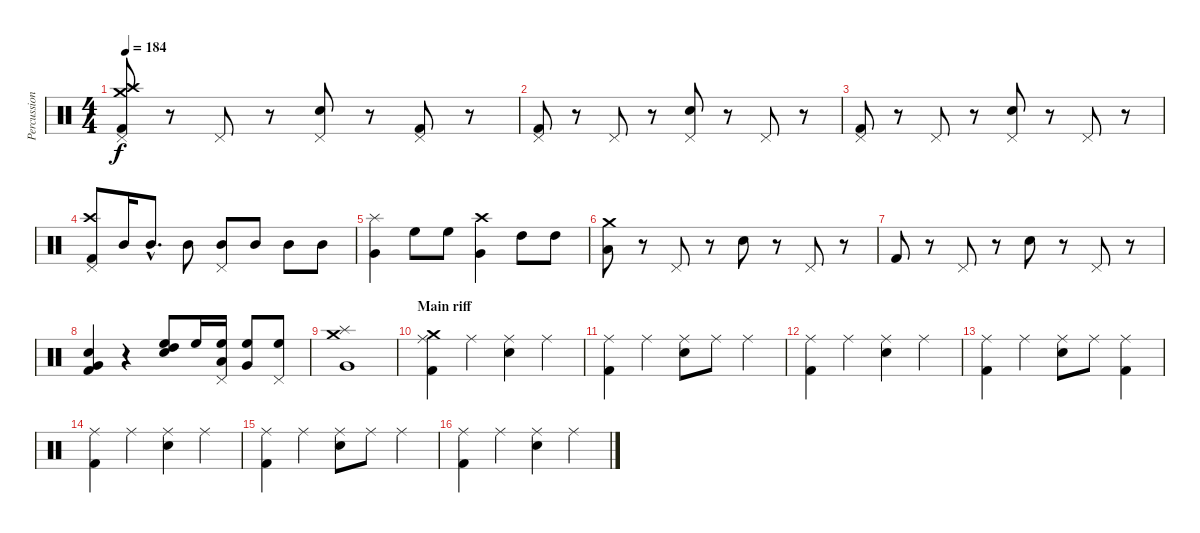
\track ("Percussion" "Percussion") {instrument percussion}
\staff {score}
\articulation defaults
\ts (4 4)
\tempo 184
\clef neutral
\ks c
("Kick (hit) 2" "Crash medium (hit)" "Crash high (hit)" "Pedal Hi-Hat (hit)").8{dy f} r.8 "Pedal Hi-Hat (hit)".8 r.8 ("Snare (hit) 2" "Pedal Hi-Hat (hit)").8 r.8 ("Kick (hit) 2" "Pedal Hi-Hat (hit)").8 r.8 |
("Kick (hit) 2" "Pedal Hi-Hat (hit)").8 r.8 "Pedal Hi-Hat (hit)".8 r.8 ("Snare (hit) 2" "Pedal Hi-Hat (hit)").8 r.8 "Pedal Hi-Hat (hit)".8 r.8 |
("Kick (hit) 2" "Pedal Hi-Hat (hit)").8 r.8 "Pedal Hi-Hat (hit)".8 r.8 ("Snare (hit) 2" "Pedal Hi-Hat (hit)").8 r.8 "Pedal Hi-Hat (hit)".8 r.8 |
("Kick (hit) 2" "Pedal Hi-Hat (hit)" "Crash high (hit)").8 "Mid Tom (hit)".16 "Mid Tom (hit)"{hac}.8{d} "Mid Tom (hit)".8 ("Mid Tom (hit)" "Pedal Hi-Hat (hit)").8 "Mid Tom (hit)".8 "Mid Tom (hit)".8 "Mid Tom (hit)".8 |
("Very Low Tom (hit)" "Splash (hit)").4 "High Floor Tom (hit)".8 "High Floor Tom (hit)".8 ("Very Low Tom (hit)" "Crash high (hit)").4 "High Tom (hit)".8 "High Tom (hit)".8 |
("Low Floor Tom (hit)" "Crash medium (hit)").8 r.8 "Pedal Hi-Hat (hit)".8 r.8 "Snare (hit) 2".8 r.8 "Pedal Hi-Hat (hit)".8 r.8 |
"Kick (hit) 2".8 r.8 "Pedal Hi-Hat (hit)".8 r.8 "Snare (hit) 2".8 r.8 "Pedal Hi-Hat (hit)".8 r.8 |
("Kick (hit) 2" "Snare (hit) 2" "Very Low Tom (hit)").4 r.4 ("Snare (hit) 2" "High Tom (hit)" "High Floor Tom (hit)").8 "High Floor Tom (hit)".16 ("Low Tom (hit)" "Pedal Hi-Hat (hit)" "High Floor Tom (hit)").16 ("Very Low Tom (hit)" "High Floor Tom (hit)").8 ("Pedal Hi-Hat (hit)" "High Floor Tom (hit)").8 |
("Splash (hit)" "Very Low Tom (hit)" "Crash medium (hit)").1 |
\section ("" "Main riff")
("Kick (hit) 2" "Crash medium (hit)" "Ride (middle)").4 "Ride (middle)".4 ("Snare (hit) 2" "Ride (middle)").4 "Ride (middle)".4 |
("Kick (hit) 2" "Ride (middle)").4 "Ride (middle)".4 ("Snare (hit) 2" "Ride (middle)").8 "Ride (middle)".8 "Ride (middle)".4 |
("Kick (hit) 2" "Ride (middle)").4 "Ride (middle)".4 ("Snare (hit) 2" "Ride (middle)").4 "Ride (middle)".4 |
("Kick (hit) 2" "Ride (middle)").4 "Ride (middle)".4 ("Snare (hit) 2" "Ride (middle)").8 "Ride (middle)".8 ("Kick (hit) 2" "Ride (middle)").4 |
("Kick (hit) 2" "Ride (middle)").4 "Ride (middle)".4 ("Snare (hit) 2" "Ride (middle)").4 "Ride (middle)".4 |
("Kick (hit) 2" "Ride (middle)").4 "Ride (middle)".4 ("Snare (hit) 2" "Ride (middle)").8 "Ride (middle)".8 "Ride (middle)".4 |
("Kick (hit) 2" "Ride (middle)").4 "Ride (middle)".4 ("Snare (hit) 2" "Ride (middle)").4 "Ride (middle)".4
